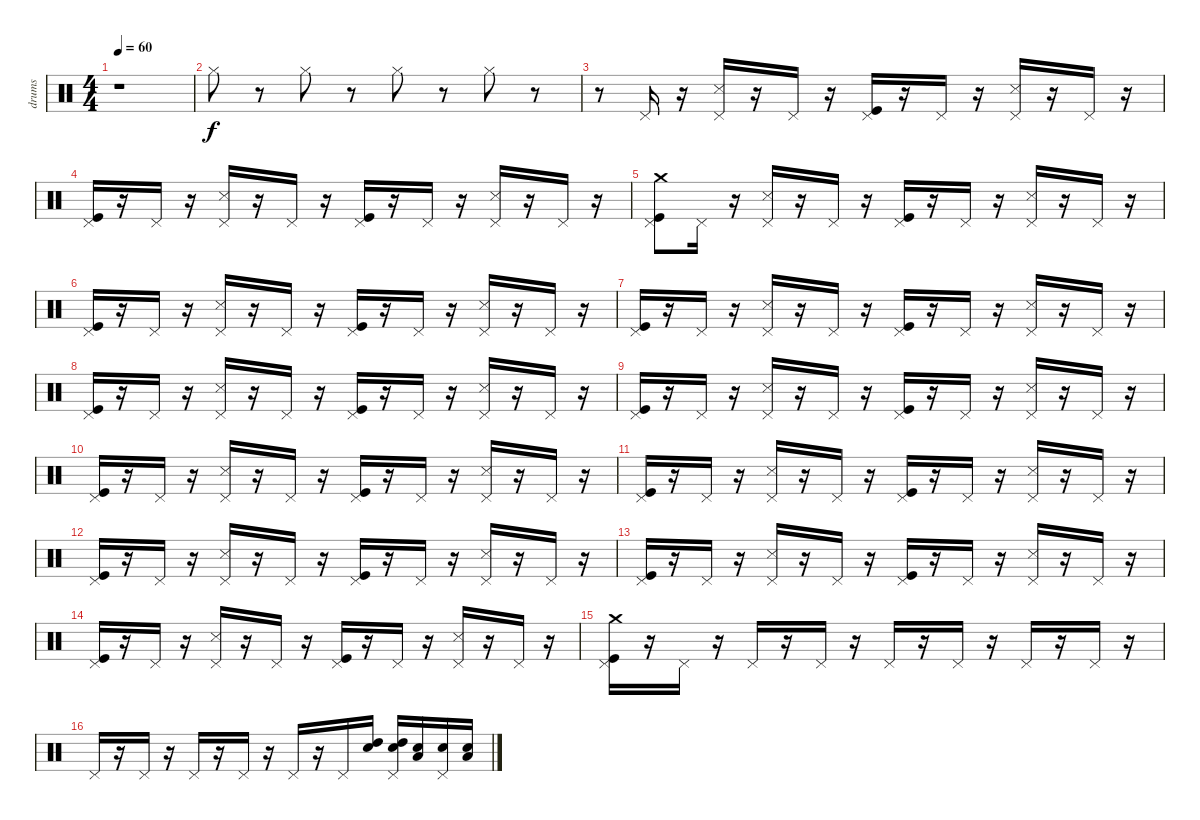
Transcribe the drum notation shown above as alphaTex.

\track ("drums" "drums") {instrument percussion}
\staff {score}
\articulation defaults
\ts (4 4)
\tempo 60
\clef neutral
\ks c
r.1{dy f} |
"Hi-Hat (closed)".8 r.8 "Hi-Hat (closed)".8 r.8 "Hi-Hat (closed)".8 r.8 "Hi-Hat (closed)".8 r.8 |
r.8 "Pedal Hi-Hat (hit)".16 r.16 ("Pedal Hi-Hat (hit)" "Snare (side stick) 3").16 r.16 "Pedal Hi-Hat (hit)".16 r.16 ("Kick (hit)" "Pedal Hi-Hat (hit)").16 r.16 "Pedal Hi-Hat (hit)".16 r.16 ("Pedal Hi-Hat (hit)" "Snare (side stick) 3").16 r.16 "Pedal Hi-Hat (hit)".16 r.16 |
("Kick (hit)" "Pedal Hi-Hat (hit)").16 r.16 "Pedal Hi-Hat (hit)".16 r.16 ("Pedal Hi-Hat (hit)" "Snare (side stick) 3").16 r.16 "Pedal Hi-Hat (hit)".16 r.16 ("Kick (hit)" "Pedal Hi-Hat (hit)").16 r.16 "Pedal Hi-Hat (hit)".16 r.16 ("Pedal Hi-Hat (hit)" "Snare (side stick) 3").16 r.16 "Pedal Hi-Hat (hit)".16 r.16 |
("Kick (hit)" "Pedal Hi-Hat (hit)" "Crash medium (hit)").8 "Pedal Hi-Hat (hit)".16 r.16 ("Pedal Hi-Hat (hit)" "Snare (side stick) 3").16 r.16 "Pedal Hi-Hat (hit)".16 r.16 ("Kick (hit)" "Pedal Hi-Hat (hit)").16 r.16 "Pedal Hi-Hat (hit)".16 r.16 ("Pedal Hi-Hat (hit)" "Snare (side stick) 3").16 r.16 "Pedal Hi-Hat (hit)".16 r.16 |
("Kick (hit)" "Pedal Hi-Hat (hit)").16 r.16 "Pedal Hi-Hat (hit)".16 r.16 ("Pedal Hi-Hat (hit)" "Snare (side stick) 3").16 r.16 "Pedal Hi-Hat (hit)".16 r.16 ("Kick (hit)" "Pedal Hi-Hat (hit)").16 r.16 "Pedal Hi-Hat (hit)".16 r.16 ("Pedal Hi-Hat (hit)" "Snare (side stick) 3").16 r.16 "Pedal Hi-Hat (hit)".16 r.16 |
("Kick (hit)" "Pedal Hi-Hat (hit)").16 r.16 "Pedal Hi-Hat (hit)".16 r.16 ("Pedal Hi-Hat (hit)" "Snare (side stick) 3").16 r.16 "Pedal Hi-Hat (hit)".16 r.16 ("Kick (hit)" "Pedal Hi-Hat (hit)").16 r.16 "Pedal Hi-Hat (hit)".16 r.16 ("Pedal Hi-Hat (hit)" "Snare (side stick) 3").16 r.16 "Pedal Hi-Hat (hit)".16 r.16 |
("Kick (hit)" "Pedal Hi-Hat (hit)").16 r.16 "Pedal Hi-Hat (hit)".16 r.16 ("Pedal Hi-Hat (hit)" "Snare (side stick) 3").16 r.16 "Pedal Hi-Hat (hit)".16 r.16 ("Kick (hit)" "Pedal Hi-Hat (hit)").16 r.16 "Pedal Hi-Hat (hit)".16 r.16 ("Pedal Hi-Hat (hit)" "Snare (side stick) 3").16 r.16 "Pedal Hi-Hat (hit)".16 r.16 |
("Kick (hit)" "Pedal Hi-Hat (hit)").16 r.16 "Pedal Hi-Hat (hit)".16 r.16 ("Pedal Hi-Hat (hit)" "Snare (side stick) 3").16 r.16 "Pedal Hi-Hat (hit)".16 r.16 ("Kick (hit)" "Pedal Hi-Hat (hit)").16 r.16 "Pedal Hi-Hat (hit)".16 r.16 ("Pedal Hi-Hat (hit)" "Snare (side stick) 3").16 r.16 "Pedal Hi-Hat (hit)".16 r.16 |
("Kick (hit)" "Pedal Hi-Hat (hit)").16 r.16 "Pedal Hi-Hat (hit)".16 r.16 ("Pedal Hi-Hat (hit)" "Snare (side stick) 3").16 r.16 "Pedal Hi-Hat (hit)".16 r.16 ("Kick (hit)" "Pedal Hi-Hat (hit)").16 r.16 "Pedal Hi-Hat (hit)".16 r.16 ("Pedal Hi-Hat (hit)" "Snare (side stick) 3").16 r.16 "Pedal Hi-Hat (hit)".16 r.16 |
("Kick (hit)" "Pedal Hi-Hat (hit)").16 r.16 "Pedal Hi-Hat (hit)".16 r.16 ("Pedal Hi-Hat (hit)" "Snare (side stick) 3").16 r.16 "Pedal Hi-Hat (hit)".16 r.16 ("Kick (hit)" "Pedal Hi-Hat (hit)").16 r.16 "Pedal Hi-Hat (hit)".16 r.16 ("Pedal Hi-Hat (hit)" "Snare (side stick) 3").16 r.16 "Pedal Hi-Hat (hit)".16 r.16 |
("Kick (hit)" "Pedal Hi-Hat (hit)").16 r.16 "Pedal Hi-Hat (hit)".16 r.16 ("Pedal Hi-Hat (hit)" "Snare (side stick) 3").16 r.16 "Pedal Hi-Hat (hit)".16 r.16 ("Kick (hit)" "Pedal Hi-Hat (hit)").16 r.16 "Pedal Hi-Hat (hit)".16 r.16 ("Pedal Hi-Hat (hit)" "Snare (side stick) 3").16 r.16 "Pedal Hi-Hat (hit)".16 r.16 |
("Kick (hit)" "Pedal Hi-Hat (hit)").16 r.16 "Pedal Hi-Hat (hit)".16 r.16 ("Pedal Hi-Hat (hit)" "Snare (side stick) 3").16 r.16 "Pedal Hi-Hat (hit)".16 r.16 ("Kick (hit)" "Pedal Hi-Hat (hit)").16 r.16 "Pedal Hi-Hat (hit)".16 r.16 ("Pedal Hi-Hat (hit)" "Snare (side stick) 3").16 r.16 "Pedal Hi-Hat (hit)".16 r.16 |
("Kick (hit)" "Pedal Hi-Hat (hit)").16 r.16 "Pedal Hi-Hat (hit)".16 r.16 ("Pedal Hi-Hat (hit)" "Snare (side stick) 3").16 r.16 "Pedal Hi-Hat (hit)".16 r.16 ("Kick (hit)" "Pedal Hi-Hat (hit)").16 r.16 "Pedal Hi-Hat (hit)".16 r.16 ("Pedal Hi-Hat (hit)" "Snare (side stick) 3").16 r.16 "Pedal Hi-Hat (hit)".16 r.16 |
("Pedal Hi-Hat (hit)" "Crash medium (hit)" "Kick (hit)").16 r.16 "Pedal Hi-Hat (hit)".16 r.16 "Pedal Hi-Hat (hit)".16 r.16 "Pedal Hi-Hat (hit)".16 r.16 "Pedal Hi-Hat (hit)".16 r.16 "Pedal Hi-Hat (hit)".16 r.16 "Pedal Hi-Hat (hit)".16 r.16 "Pedal Hi-Hat (hit)".16 r.16 |
"Pedal Hi-Hat (hit)".16 r.16 "Pedal Hi-Hat (hit)".16 r.16 "Pedal Hi-Hat (hit)".16 r.16 "Pedal Hi-Hat (hit)".16 r.16 "Pedal Hi-Hat (hit)".16 r.16 "Pedal Hi-Hat (hit)".16 ("Snare (hit)" "High Tom (hit)").16 ("Snare (hit)" "High Tom (hit)" "Pedal Hi-Hat (hit)").16 ("Snare (hit)" "Low Tom (hit)").16 ("Snare (hit)" "Pedal Hi-Hat (hit)").16 ("Snare (hit)" "Low Floor Tom (hit)").16
